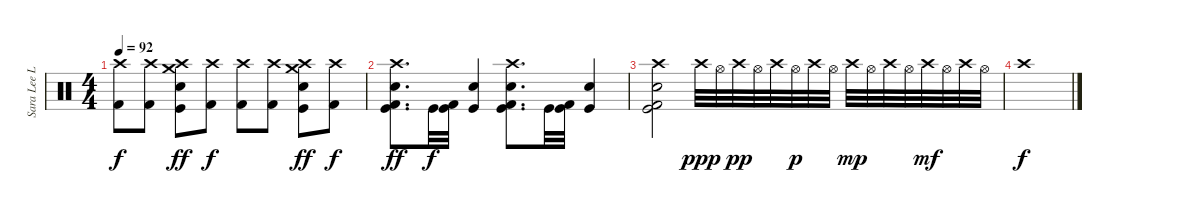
\track ("Sara Lee Lucas (Drums)" "Sara Lee L") {instrument percussion}
\staff {score}
\articulation defaults
\ts (4 4)
\tempo 92
\clef neutral
\ks c
("Crash high (hit)" "Kick (hit) 2").8{dy f} ("Crash high (hit)" "Kick (hit) 2").8 ("Crash high (hit)" "Crash medium (hit)" "Snare (hit) 2" "Kick (hit)").8{dy ff} ("Crash high (hit)" "Kick (hit) 2").8{dy f} ("Crash high (hit)" "Kick (hit) 2").8 ("Crash high (hit)" "Kick (hit) 2").8 ("Crash high (hit)" "Crash medium (hit)" "Snare (hit) 2" "Kick (hit)").8{dy ff} ("Crash high (hit)" "Kick (hit) 2").8{dy f} |
("Crash high (hit)" "Snare (hit) 2" "Kick (hit) 2" "Kick (hit)").8{d dy ff} "Kick (hit)".32{dy f} ("Kick (hit) 2" "Kick (hit)").32 ("Snare (hit) 2" "Kick (hit)").4 ("Crash high (hit)" "Snare (hit) 2" "Kick (hit) 2" "Kick (hit)").8{d} "Kick (hit)".32 ("Kick (hit) 2" "Kick (hit)").32 ("Snare (hit) 2" "Kick (hit)").4 |
("Crash high (hit)" "Snare (hit) 2" "Kick (hit) 2" "Kick (hit)").2 "Crash high (hit)".32{dy ppp} "Hi-Hat (open)".32 "Crash high (hit)".32{dy pp} "Hi-Hat (open)".32 "Crash high (hit)".32 "Hi-Hat (open)".32{dy p} "Crash high (hit)".32 "Hi-Hat (open)".32 "Crash high (hit)".32{dy mp} "Hi-Hat (open)".32 "Crash high (hit)".32 "Hi-Hat (open)".32 "Crash high (hit)".32{dy mf} "Hi-Hat (open)".32 "Crash high (hit)".32 "Hi-Hat (open)".32 |
"Crash high (hit)".1{dy f}
